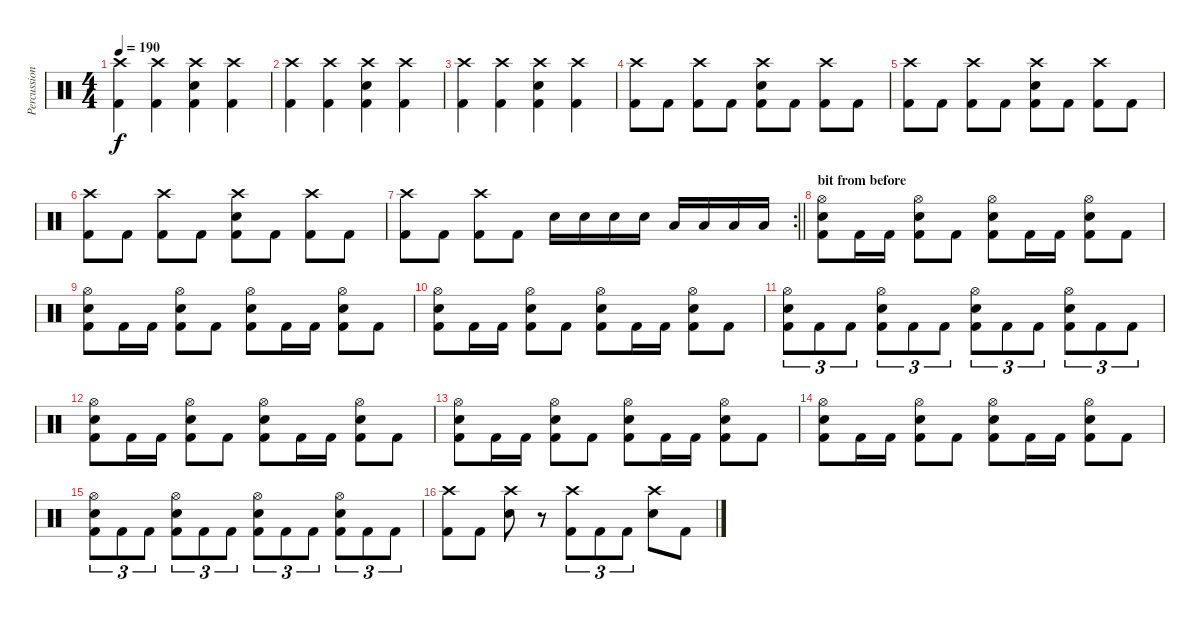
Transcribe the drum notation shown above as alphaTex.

\track ("Percussion" "Percussion") {instrument percussion}
\staff {score}
\articulation defaults
\ts (4 4)
\tempo 190
\clef neutral
\ks c
("Crash high (hit)" "Kick (hit) 2").4{dy f} ("Crash high (hit)" "Kick (hit) 2").4 ("Crash high (hit)" "Electric Snare (hit)" "Kick (hit) 2").4 ("Crash high (hit)" "Kick (hit) 2").4 |
("Crash high (hit)" "Kick (hit) 2").4 ("Crash high (hit)" "Kick (hit) 2").4 ("Crash high (hit)" "Electric Snare (hit)" "Kick (hit) 2").4 ("Crash high (hit)" "Kick (hit) 2").4 |
("Crash high (hit)" "Kick (hit) 2").4 ("Crash high (hit)" "Kick (hit) 2").4 ("Crash high (hit)" "Electric Snare (hit)" "Kick (hit) 2").4 ("Crash high (hit)" "Kick (hit) 2").4 |
("Crash high (hit)" "Kick (hit) 2").8 "Kick (hit) 2".8 ("Crash high (hit)" "Kick (hit) 2").8 "Kick (hit) 2".8 ("Crash high (hit)" "Electric Snare (hit)" "Kick (hit) 2").8 "Kick (hit) 2".8 ("Crash high (hit)" "Kick (hit) 2").8 "Kick (hit) 2".8 |
("Crash high (hit)" "Kick (hit) 2").8 "Kick (hit) 2".8 ("Crash high (hit)" "Kick (hit) 2").8 "Kick (hit) 2".8 ("Crash high (hit)" "Electric Snare (hit)" "Kick (hit) 2").8 "Kick (hit) 2".8 ("Crash high (hit)" "Kick (hit) 2").8 "Kick (hit) 2".8 |
("Crash high (hit)" "Kick (hit) 2").8 "Kick (hit) 2".8 ("Crash high (hit)" "Kick (hit) 2").8 "Kick (hit) 2".8 ("Crash high (hit)" "Electric Snare (hit)" "Kick (hit) 2").8 "Kick (hit) 2".8 ("Crash high (hit)" "Kick (hit) 2").8 "Kick (hit) 2".8 |
\rc 2
\barLineRight lightlight
("Crash high (hit)" "Kick (hit) 2").8 "Kick (hit) 2".8 ("Crash high (hit)" "Kick (hit) 2").8 "Kick (hit) 2".8 "Electric Snare (hit)".16 "Electric Snare (hit)".16 "Electric Snare (hit)".16 "Electric Snare (hit)".16 "Low Tom (hit)".16 "Low Tom (hit)".16 "Low Floor Tom (hit)".16 "Low Floor Tom (hit)".16 |
\section ("" "bit from before")
("Hi-Hat (open)" "Electric Snare (hit)" "Kick (hit) 2").8 "Kick (hit) 2".16 "Kick (hit) 2".16 ("Hi-Hat (open)" "Electric Snare (hit)" "Kick (hit) 2").8 "Kick (hit) 2".8 ("Hi-Hat (open)" "Electric Snare (hit)" "Kick (hit) 2").8 "Kick (hit) 2".16 "Kick (hit) 2".16 ("Hi-Hat (open)" "Electric Snare (hit)" "Kick (hit) 2").8 "Kick (hit) 2".8 |
("Hi-Hat (open)" "Electric Snare (hit)" "Kick (hit) 2").8 "Kick (hit) 2".16 "Kick (hit) 2".16 ("Hi-Hat (open)" "Electric Snare (hit)" "Kick (hit) 2").8 "Kick (hit) 2".8 ("Hi-Hat (open)" "Electric Snare (hit)" "Kick (hit) 2").8 "Kick (hit) 2".16 "Kick (hit) 2".16 ("Hi-Hat (open)" "Electric Snare (hit)" "Kick (hit) 2").8 "Kick (hit) 2".8 |
("Hi-Hat (open)" "Electric Snare (hit)" "Kick (hit) 2").8 "Kick (hit) 2".16 "Kick (hit) 2".16 ("Hi-Hat (open)" "Electric Snare (hit)" "Kick (hit) 2").8 "Kick (hit) 2".8 ("Hi-Hat (open)" "Electric Snare (hit)" "Kick (hit) 2").8 "Kick (hit) 2".16 "Kick (hit) 2".16 ("Hi-Hat (open)" "Electric Snare (hit)" "Kick (hit) 2").8 "Kick (hit) 2".8 |
("Hi-Hat (open)" "Electric Snare (hit)" "Kick (hit) 2").8{tu (3 2)} "Kick (hit) 2".8{tu (3 2)} "Kick (hit) 2".8{tu (3 2)} ("Hi-Hat (open)" "Electric Snare (hit)" "Kick (hit) 2").8{tu (3 2)} "Kick (hit) 2".8{tu (3 2)} "Kick (hit) 2".8{tu (3 2)} ("Hi-Hat (open)" "Electric Snare (hit)" "Kick (hit) 2").8{tu (3 2)} "Kick (hit) 2".8{tu (3 2)} "Kick (hit) 2".8{tu (3 2)} ("Hi-Hat (open)" "Electric Snare (hit)" "Kick (hit) 2").8{tu (3 2)} "Kick (hit) 2".8{tu (3 2)} "Kick (hit) 2".8{tu (3 2)} |
("Hi-Hat (open)" "Electric Snare (hit)" "Kick (hit) 2").8 "Kick (hit) 2".16 "Kick (hit) 2".16 ("Hi-Hat (open)" "Electric Snare (hit)" "Kick (hit) 2").8 "Kick (hit) 2".8 ("Hi-Hat (open)" "Electric Snare (hit)" "Kick (hit) 2").8 "Kick (hit) 2".16 "Kick (hit) 2".16 ("Hi-Hat (open)" "Electric Snare (hit)" "Kick (hit) 2").8 "Kick (hit) 2".8 |
("Hi-Hat (open)" "Electric Snare (hit)" "Kick (hit) 2").8 "Kick (hit) 2".16 "Kick (hit) 2".16 ("Hi-Hat (open)" "Electric Snare (hit)" "Kick (hit) 2").8 "Kick (hit) 2".8 ("Hi-Hat (open)" "Electric Snare (hit)" "Kick (hit) 2").8 "Kick (hit) 2".16 "Kick (hit) 2".16 ("Hi-Hat (open)" "Electric Snare (hit)" "Kick (hit) 2").8 "Kick (hit) 2".8 |
("Hi-Hat (open)" "Electric Snare (hit)" "Kick (hit) 2").8 "Kick (hit) 2".16 "Kick (hit) 2".16 ("Hi-Hat (open)" "Electric Snare (hit)" "Kick (hit) 2").8 "Kick (hit) 2".8 ("Hi-Hat (open)" "Electric Snare (hit)" "Kick (hit) 2").8 "Kick (hit) 2".16 "Kick (hit) 2".16 ("Hi-Hat (open)" "Electric Snare (hit)" "Kick (hit) 2").8 "Kick (hit) 2".8 |
("Hi-Hat (open)" "Electric Snare (hit)" "Kick (hit) 2").8{tu (3 2)} "Kick (hit) 2".8{tu (3 2)} "Kick (hit) 2".8{tu (3 2)} ("Hi-Hat (open)" "Electric Snare (hit)" "Kick (hit) 2").8{tu (3 2)} "Kick (hit) 2".8{tu (3 2)} "Kick (hit) 2".8{tu (3 2)} ("Hi-Hat (open)" "Electric Snare (hit)" "Kick (hit) 2").8{tu (3 2)} "Kick (hit) 2".8{tu (3 2)} "Kick (hit) 2".8{tu (3 2)} ("Hi-Hat (open)" "Electric Snare (hit)" "Kick (hit) 2").8{tu (3 2)} "Kick (hit) 2".8{tu (3 2)} "Kick (hit) 2".8{tu (3 2)} |
("Crash high (hit)" "Kick (hit) 2").8 "Kick (hit) 2".8 ("Crash high (hit)" "Electric Snare (hit)").8 r.8 ("Crash high (hit)" "Kick (hit) 2").8{tu (3 2)} "Kick (hit) 2".8{tu (3 2)} "Kick (hit) 2".8{tu (3 2)} ("Crash high (hit)" "Electric Snare (hit)").8 "Kick (hit) 2".8
